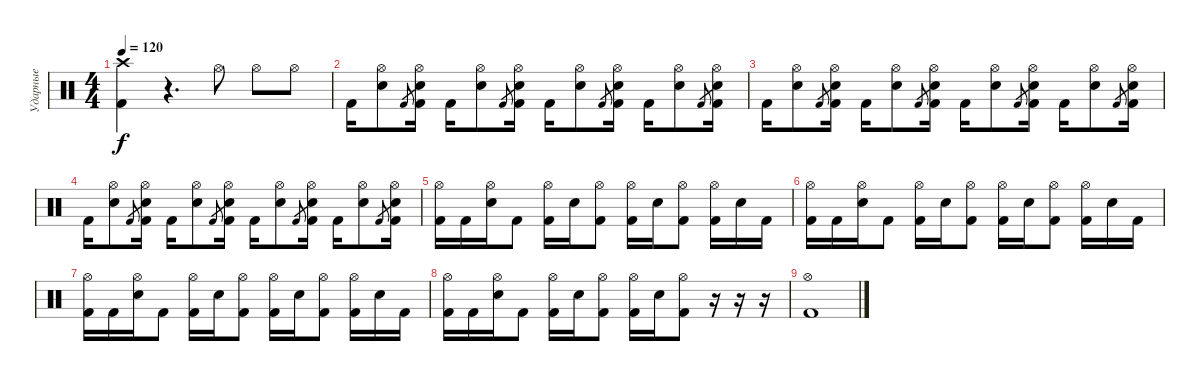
\track ("Ударные" "Ударные") {instrument percussion}
\staff {score}
\articulation defaults
\ts (4 4)
\tempo 120
\clef neutral
\ks c
("Crash high (hit)" "Kick (hit) 2").4{dy f} r.4{d} "Hi-Hat (open)".8 "Hi-Hat (open)".8 "Hi-Hat (open)".8 |
"Kick (hit) 2".16 ("Hi-Hat (open)" "Electric Snare (hit)").8 "Kick (hit) 2".8{gr} ("Hi-Hat (open)" "Electric Snare (hit)" "Kick (hit) 2").16 "Kick (hit) 2".16 ("Hi-Hat (open)" "Electric Snare (hit)").8 "Kick (hit) 2".8{gr} ("Hi-Hat (open)" "Electric Snare (hit)" "Kick (hit) 2").16 "Kick (hit) 2".16 ("Hi-Hat (open)" "Electric Snare (hit)").8 "Kick (hit) 2".8{gr} ("Hi-Hat (open)" "Electric Snare (hit)" "Kick (hit) 2").16 "Kick (hit) 2".16 ("Hi-Hat (open)" "Electric Snare (hit)").8 "Kick (hit) 2".8{gr} ("Hi-Hat (open)" "Electric Snare (hit)" "Kick (hit) 2").16 |
"Kick (hit) 2".16 ("Hi-Hat (open)" "Electric Snare (hit)").8 "Kick (hit) 2".8{gr} ("Hi-Hat (open)" "Electric Snare (hit)" "Kick (hit) 2").16 "Kick (hit) 2".16 ("Hi-Hat (open)" "Electric Snare (hit)").8 "Kick (hit) 2".8{gr} ("Hi-Hat (open)" "Electric Snare (hit)" "Kick (hit) 2").16 "Kick (hit) 2".16 ("Hi-Hat (open)" "Electric Snare (hit)").8 "Kick (hit) 2".8{gr} ("Hi-Hat (open)" "Electric Snare (hit)" "Kick (hit) 2").16 "Kick (hit) 2".16 ("Hi-Hat (open)" "Electric Snare (hit)").8 "Kick (hit) 2".8{gr} ("Hi-Hat (open)" "Electric Snare (hit)" "Kick (hit) 2").16 |
"Kick (hit) 2".16 ("Hi-Hat (open)" "Electric Snare (hit)").8 "Kick (hit) 2".8{gr} ("Hi-Hat (open)" "Electric Snare (hit)" "Kick (hit) 2").16 "Kick (hit) 2".16 ("Hi-Hat (open)" "Electric Snare (hit)").8 "Kick (hit) 2".8{gr} ("Hi-Hat (open)" "Electric Snare (hit)" "Kick (hit) 2").16 "Kick (hit) 2".16 ("Hi-Hat (open)" "Electric Snare (hit)").8 "Kick (hit) 2".8{gr} ("Hi-Hat (open)" "Electric Snare (hit)" "Kick (hit) 2").16 "Kick (hit) 2".16 ("Hi-Hat (open)" "Electric Snare (hit)").8 "Kick (hit) 2".8{gr} ("Hi-Hat (open)" "Electric Snare (hit)" "Kick (hit) 2").16 |
("Hi-Hat (open)" "Kick (hit) 2").16 "Kick (hit) 2".16 ("Hi-Hat (open)" "Electric Snare (hit)").16 "Kick (hit) 2".8 ("Hi-Hat (open)" "Kick (hit) 2").16 "Electric Snare (hit)".16 ("Hi-Hat (open)" "Kick (hit) 2").8 ("Hi-Hat (open)" "Kick (hit) 2").16 "Electric Snare (hit)".16 ("Hi-Hat (open)" "Kick (hit) 2").8 ("Hi-Hat (open)" "Kick (hit) 2").16 "Electric Snare (hit)".16 "Kick (hit) 2".16 |
("Hi-Hat (open)" "Kick (hit) 2").16 "Kick (hit) 2".16 ("Hi-Hat (open)" "Electric Snare (hit)").16 "Kick (hit) 2".8 ("Hi-Hat (open)" "Kick (hit) 2").16 "Electric Snare (hit)".16 ("Hi-Hat (open)" "Kick (hit) 2").8 ("Hi-Hat (open)" "Kick (hit) 2").16 "Electric Snare (hit)".16 ("Hi-Hat (open)" "Kick (hit) 2").8 ("Hi-Hat (open)" "Kick (hit) 2").16 "Electric Snare (hit)".16 "Kick (hit) 2".16 |
("Hi-Hat (open)" "Kick (hit) 2").16 "Kick (hit) 2".16 ("Hi-Hat (open)" "Electric Snare (hit)").16 "Kick (hit) 2".8 ("Hi-Hat (open)" "Kick (hit) 2").16 "Electric Snare (hit)".16 ("Hi-Hat (open)" "Kick (hit) 2").8 ("Hi-Hat (open)" "Kick (hit) 2").16 "Electric Snare (hit)".16 ("Hi-Hat (open)" "Kick (hit) 2").8 ("Hi-Hat (open)" "Kick (hit) 2").16 "Electric Snare (hit)".16 "Kick (hit) 2".16 |
("Hi-Hat (open)" "Kick (hit) 2").16 "Kick (hit) 2".16 ("Hi-Hat (open)" "Electric Snare (hit)").16 "Kick (hit) 2".8 ("Hi-Hat (open)" "Kick (hit) 2").16 "Electric Snare (hit)".16 ("Hi-Hat (open)" "Kick (hit) 2").8 ("Hi-Hat (open)" "Kick (hit) 2").16 "Electric Snare (hit)".16 ("Hi-Hat (open)" "Kick (hit) 2").8 r.16 r.16 r.16 |
("Hi-Hat (open)" "Kick (hit) 2").1
